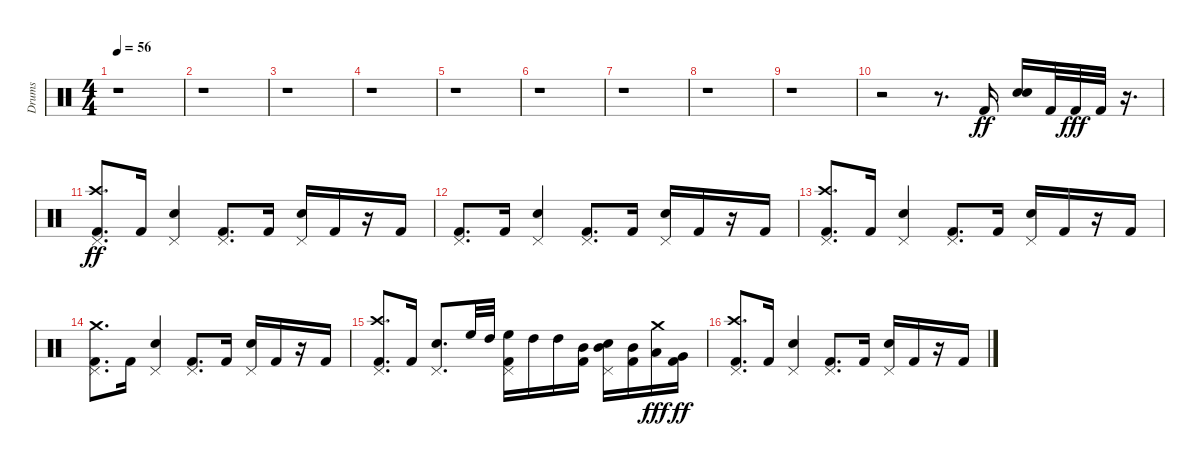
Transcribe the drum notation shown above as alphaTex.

\track ("Drums" "Drums") {instrument percussion}
\staff {score}
\articulation defaults
\ts (4 4)
\tempo 56
\clef neutral
\ks c
r.1{dy ff} |
r.1 |
r.1 |
r.1 |
r.1 |
r.1 |
r.1 |
r.1 |
r.1 |
r.2 r.8{d} "Kick (hit) 2".16 ("Electric Snare (hit)" "Snare (hit) 2").16 "Kick (hit) 2".32 "Kick (hit) 2".32{dy fff} "Kick (hit) 2".32 r.16{d} |
("Crash high (hit)" "Pedal Hi-Hat (hit)" "Kick (hit) 2").8{d dy ff} "Kick (hit) 2".16 ("Snare (hit) 2" "Pedal Hi-Hat (hit)").4 ("Kick (hit) 2" "Pedal Hi-Hat (hit)").8{d} "Kick (hit) 2".16 ("Snare (hit) 2" "Pedal Hi-Hat (hit)").16 "Kick (hit) 2".16 r.16 "Kick (hit) 2".16 |
("Pedal Hi-Hat (hit)" "Kick (hit) 2").8{d} "Kick (hit) 2".16 ("Snare (hit) 2" "Pedal Hi-Hat (hit)").4 ("Kick (hit) 2" "Pedal Hi-Hat (hit)").8{d} "Kick (hit) 2".16 ("Snare (hit) 2" "Pedal Hi-Hat (hit)").16 "Kick (hit) 2".16 r.16 "Kick (hit) 2".16 |
("Crash high (hit)" "Pedal Hi-Hat (hit)" "Kick (hit) 2").8{d} "Kick (hit) 2".16 ("Snare (hit) 2" "Pedal Hi-Hat (hit)").4 ("Kick (hit) 2" "Pedal Hi-Hat (hit)").8{d} "Kick (hit) 2".16 ("Snare (hit) 2" "Pedal Hi-Hat (hit)").16 "Kick (hit) 2".16 r.16 "Kick (hit) 2".16 |
("Pedal Hi-Hat (hit)" "Crash medium (hit)" "Kick (hit) 2").8{d} "Kick (hit) 2".16 ("Snare (hit) 2" "Pedal Hi-Hat (hit)").4 ("Kick (hit) 2" "Pedal Hi-Hat (hit)").8{d} "Kick (hit) 2".16 ("Snare (hit) 2" "Pedal Hi-Hat (hit)").16 "Kick (hit) 2".16 r.16 "Kick (hit) 2".16 |
("Crash high (hit)" "Pedal Hi-Hat (hit)" "Kick (hit) 2").8{d} "Kick (hit) 2".16 ("Snare (hit) 2" "Pedal Hi-Hat (hit)").8{d} "High Floor Tom (hit)".32 "High Tom (hit)".32 ("High Floor Tom (hit)" "Kick (hit) 2" "Pedal Hi-Hat (hit)").16 "High Tom (hit)".16 "High Tom (hit)".16 ("Kick (hit) 2" "Mid Tom (hit)").16 ("Snare (hit) 2" "Pedal Hi-Hat (hit)" "Mid Tom (hit)").16 ("Mid Tom (hit)" "Kick (hit) 2").16 ("Low Tom (hit)" "Crash medium (hit)").16{dy fff} ("Very Low Tom (hit)" "Kick (hit) 2").16{dy ff} |
("Pedal Hi-Hat (hit)" "Kick (hit) 2" "Crash high (hit)").8{d} "Kick (hit) 2".16 ("Snare (hit) 2" "Pedal Hi-Hat (hit)").4 ("Kick (hit) 2" "Pedal Hi-Hat (hit)").8{d} "Kick (hit) 2".16 ("Snare (hit) 2" "Pedal Hi-Hat (hit)").16 "Kick (hit) 2".16 r.16 "Kick (hit) 2".16
